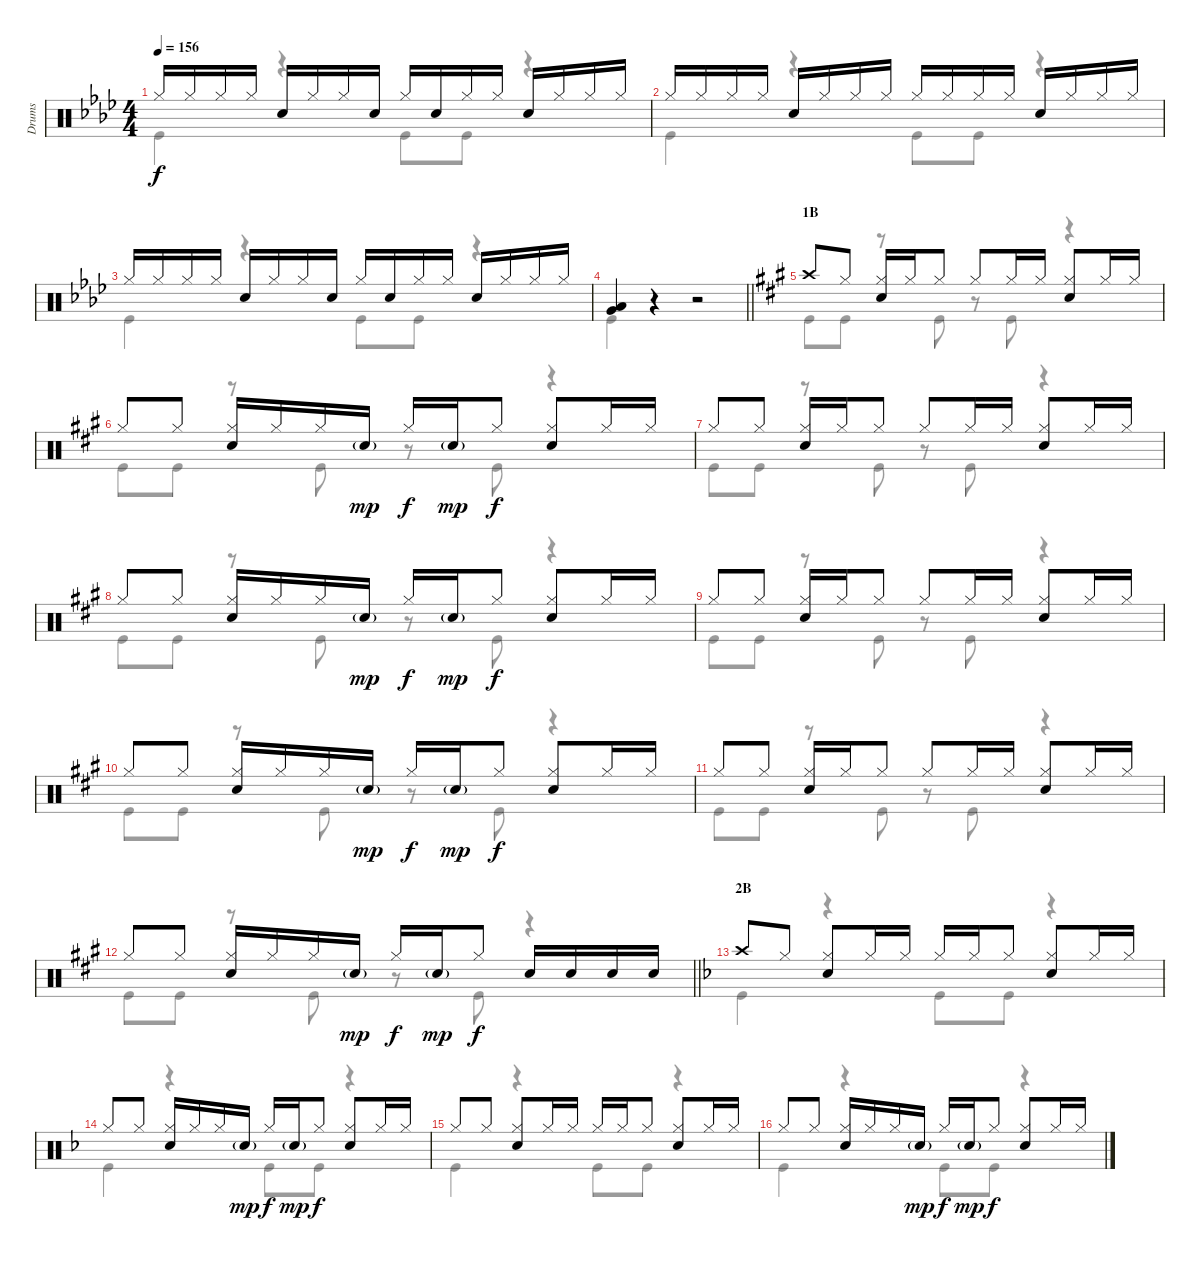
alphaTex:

\track ("Drums" "Drums") {instrument percussion}
\staff {score}
\articulation defaults
\voice
\ts (4 4)
\tempo 156
\clef neutral
\ks ab "Hi-Hat (closed)".16{dy f} "Hi-Hat (closed)".16 "Hi-Hat (closed)".16 "Hi-Hat (closed)".16 "Snare (hit) 2".16 "Hi-Hat (closed)".16 "Hi-Hat (closed)".16 "Snare (hit) 2".16 "Hi-Hat (closed)".16 "Snare (hit) 2".16 "Hi-Hat (closed)".16 "Hi-Hat (closed)".16 "Snare (hit) 2".16 "Hi-Hat (closed)".16 "Hi-Hat (closed)".16 "Hi-Hat (closed)".16
|
"Hi-Hat (closed)".16 "Hi-Hat (closed)".16 "Hi-Hat (closed)".16 "Hi-Hat (closed)".16 "Snare (hit) 2".16 "Hi-Hat (closed)".16 "Hi-Hat (closed)".16 "Hi-Hat (closed)".16 "Hi-Hat (closed)".16 "Hi-Hat (closed)".16 "Hi-Hat (closed)".16 "Hi-Hat (closed)".16 "Snare (hit) 2".16 "Hi-Hat (closed)".16 "Hi-Hat (closed)".16 "Hi-Hat (closed)".16 |
"Hi-Hat (closed)".16 "Hi-Hat (closed)".16 "Hi-Hat (closed)".16 "Hi-Hat (closed)".16 "Snare (hit) 2".16 "Hi-Hat (closed)".16 "Hi-Hat (closed)".16 "Snare (hit) 2".16 "Hi-Hat (closed)".16 "Snare (hit) 2".16 "Hi-Hat (closed)".16 "Hi-Hat (closed)".16 "Snare (hit) 2".16 "Hi-Hat (closed)".16 "Hi-Hat (closed)".16 "Hi-Hat (closed)".16 |
\barLineRight lightlight
("Low Tom (hit)" "Very Low Tom (hit)").4 r.4 r.2 |
\section ("" "1B")
\ks a "Crash high (hit)".8 "Hi-Hat (closed)".8
("Hi-Hat (closed)" "Snare (hit) 2").16 "Hi-Hat (closed)".16 "Hi-Hat (closed)".8 "Hi-Hat (closed)".8 "Hi-Hat (closed)".16 "Hi-Hat (closed)".16 ("Hi-Hat (closed)" "Snare (hit) 2").8 "Hi-Hat (closed)".16 "Hi-Hat (closed)".16 |
"Hi-Hat (closed)".8 "Hi-Hat (closed)".8 ("Hi-Hat (closed)" "Snare (hit) 2").16 "Hi-Hat (closed)".16 "Hi-Hat (closed)".16 "Snare (hit) 2"{g}.16{dy mp} "Hi-Hat (closed)".16{dy f} "Snare (hit) 2"{g}.16{dy mp} "Hi-Hat (closed)".8{dy f} ("Hi-Hat (closed)" "Snare (hit) 2").8 "Hi-Hat (closed)".16 "Hi-Hat (closed)".16 |
"Hi-Hat (closed)".8 "Hi-Hat (closed)".8 ("Hi-Hat (closed)" "Snare (hit) 2").16 "Hi-Hat (closed)".16 "Hi-Hat (closed)".8 "Hi-Hat (closed)".8 "Hi-Hat (closed)".16 "Hi-Hat (closed)".16 ("Hi-Hat (closed)" "Snare (hit) 2").8 "Hi-Hat (closed)".16 "Hi-Hat (closed)".16 |
"Hi-Hat (closed)".8 "Hi-Hat (closed)".8 ("Hi-Hat (closed)" "Snare (hit) 2").16 "Hi-Hat (closed)".16 "Hi-Hat (closed)".16 "Snare (hit) 2"{g}.16{dy mp} "Hi-Hat (closed)".16{dy f} "Snare (hit) 2"{g}.16{dy mp} "Hi-Hat (closed)".8{dy f} ("Hi-Hat (closed)" "Snare (hit) 2").8 "Hi-Hat (closed)".16 "Hi-Hat (closed)".16 |
"Hi-Hat (closed)".8 "Hi-Hat (closed)".8 ("Hi-Hat (closed)" "Snare (hit) 2").16 "Hi-Hat (closed)".16 "Hi-Hat (closed)".8 "Hi-Hat (closed)".8 "Hi-Hat (closed)".16 "Hi-Hat (closed)".16 ("Hi-Hat (closed)" "Snare (hit) 2").8 "Hi-Hat (closed)".16 "Hi-Hat (closed)".16 |
"Hi-Hat (closed)".8 "Hi-Hat (closed)".8 ("Hi-Hat (closed)" "Snare (hit) 2").16 "Hi-Hat (closed)".16 "Hi-Hat (closed)".16 "Snare (hit) 2"{g}.16{dy mp} "Hi-Hat (closed)".16{dy f} "Snare (hit) 2"{g}.16{dy mp} "Hi-Hat (closed)".8{dy f} ("Hi-Hat (closed)" "Snare (hit) 2").8 "Hi-Hat (closed)".16 "Hi-Hat (closed)".16 |
"Hi-Hat (closed)".8 "Hi-Hat (closed)".8 ("Hi-Hat (closed)" "Snare (hit) 2").16 "Hi-Hat (closed)".16 "Hi-Hat (closed)".8 "Hi-Hat (closed)".8 "Hi-Hat (closed)".16 "Hi-Hat (closed)".16 ("Hi-Hat (closed)" "Snare (hit) 2").8 "Hi-Hat (closed)".16 "Hi-Hat (closed)".16 |
\barLineRight lightlight "Hi-Hat (closed)".8 "Hi-Hat (closed)".8
("Hi-Hat (closed)" "Snare (hit) 2").16 "Hi-Hat (closed)".16 "Hi-Hat (closed)".16 "Snare (hit) 2"{g}.16{dy mp} "Hi-Hat (closed)".16{dy f} "Snare (hit) 2"{g}.16{dy mp} "Hi-Hat (closed)".8{dy f} "Snare (hit) 2".16 "Snare (hit) 2".16 "Snare (hit) 2".16 "Snare (hit) 2".16 |
\section ("" "2B")
\ks f "Crash high (hit)".8 "Hi-Hat (closed)".8
("Hi-Hat (closed)" "Snare (hit) 2").8 "Hi-Hat (closed)".16 "Hi-Hat (closed)".16 "Hi-Hat (closed)".16 "Hi-Hat (closed)".16 "Hi-Hat (closed)".8 ("Hi-Hat (closed)" "Snare (hit) 2").8 "Hi-Hat (closed)".16 "Hi-Hat (closed)".16 |
"Hi-Hat (closed)".8 "Hi-Hat (closed)".8 ("Hi-Hat (closed)" "Snare (hit) 2").16 "Hi-Hat (closed)".16 "Hi-Hat (closed)".16 "Snare (hit) 2"{g}.16{dy mp} "Hi-Hat (closed)".16{dy f} "Snare (hit) 2"{g}.16{dy mp} "Hi-Hat (closed)".8{dy f} ("Hi-Hat (closed)" "Snare (hit) 2").8 "Hi-Hat (closed)".16 "Hi-Hat (closed)".16 |
"Hi-Hat (closed)".8 "Hi-Hat (closed)".8 ("Hi-Hat (closed)" "Snare (hit) 2").8 "Hi-Hat (closed)".16 "Hi-Hat (closed)".16 "Hi-Hat (closed)".16 "Hi-Hat (closed)".16 "Hi-Hat (closed)".8 ("Hi-Hat (closed)" "Snare (hit) 2").8 "Hi-Hat (closed)".16 "Hi-Hat (closed)".16 |
"Hi-Hat (closed)".8 "Hi-Hat (closed)".8 ("Hi-Hat (closed)" "Snare (hit) 2").16 "Hi-Hat (closed)".16 "Hi-Hat (closed)".16 "Snare (hit) 2"{g}.16{dy mp} "Hi-Hat (closed)".16{dy f} "Snare (hit) 2"{g}.16{dy mp} "Hi-Hat (closed)".8{dy f} ("Hi-Hat (closed)" "Snare (hit) 2").8 "Hi-Hat (closed)".16 "Hi-Hat (closed)".16
\voice
\clef neutral
\ottava regular
\simile none
\ks ab "Kick (hit)".4{dy f}
r.4 "Kick (hit)".8 "Kick (hit)".8 r.4 |
"Kick (hit)".4 r.4 "Kick (hit)".8 "Kick (hit)".8 r.4 |
"Kick (hit)".4 r.4 "Kick (hit)".8 "Kick (hit)".8 r.4 |
\barLineRight lightlight "Kick (hit)".4
r.4 r.2 |
\ks a "Kick (hit)".8 "Kick (hit)".8
r.8 "Kick (hit)".8 r.8 "Kick (hit)".8 r.4 |
"Kick (hit)".8 "Kick (hit)".8 r.8 "Kick (hit)".8 r.8 "Kick (hit)".8 r.4 |
"Kick (hit)".8 "Kick (hit)".8 r.8 "Kick (hit)".8 r.8 "Kick (hit)".8 r.4 |
"Kick (hit)".8 "Kick (hit)".8 r.8 "Kick (hit)".8 r.8 "Kick (hit)".8 r.4 |
"Kick (hit)".8 "Kick (hit)".8 r.8 "Kick (hit)".8 r.8 "Kick (hit)".8 r.4 |
"Kick (hit)".8 "Kick (hit)".8 r.8 "Kick (hit)".8 r.8 "Kick (hit)".8 r.4 |
"Kick (hit)".8 "Kick (hit)".8 r.8 "Kick (hit)".8 r.8 "Kick (hit)".8 r.4 |
\barLineRight lightlight "Kick (hit)".8 "Kick (hit)".8
r.8 "Kick (hit)".8 r.8 "Kick (hit)".8 r.4 |
\ks f "Kick (hit)".4
r.4 "Kick (hit)".8 "Kick (hit)".8 r.4 |
"Kick (hit)".4 r.4 "Kick (hit)".8 "Kick (hit)".8 r.4 |
"Kick (hit)".4 r.4 "Kick (hit)".8 "Kick (hit)".8 r.4 |
"Kick (hit)".4 r.4 "Kick (hit)".8 "Kick (hit)".8 r.4
